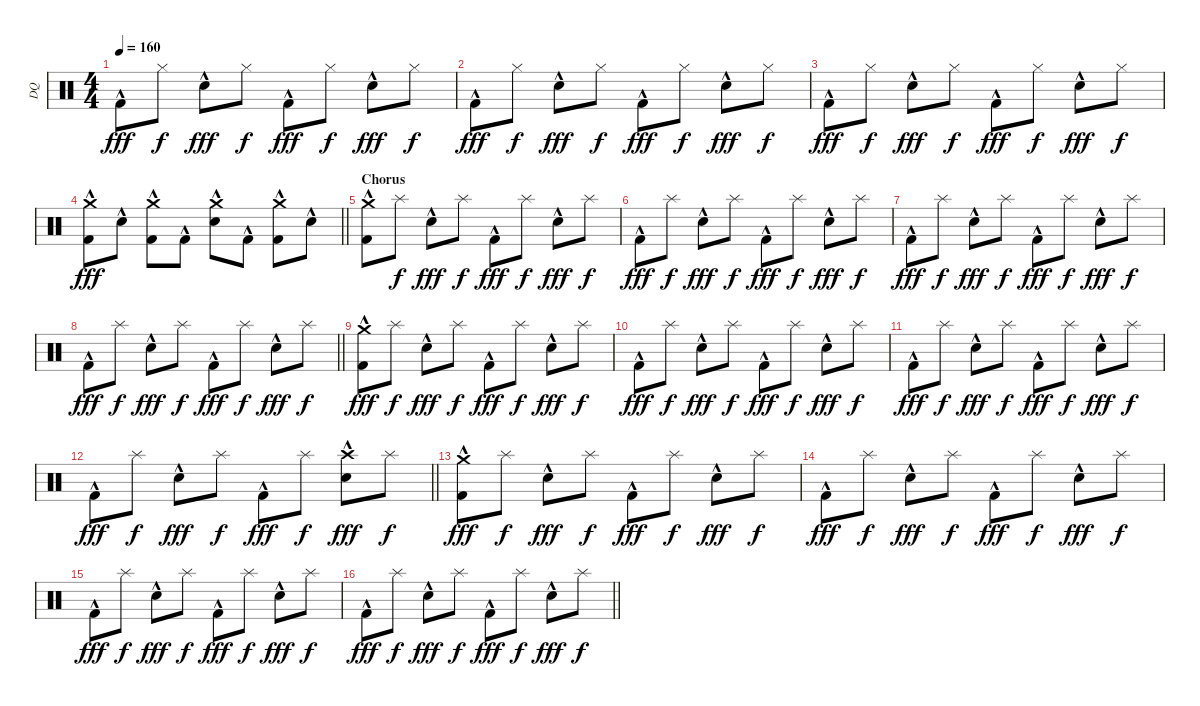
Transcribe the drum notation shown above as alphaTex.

\track ("DQ" "DQ") {instrument percussion}
\staff {score}
\articulation defaults
\ts (4 4)
\section ("" "")
\tempo 160
\clef neutral
\ks c "Kick (hit) 2"{hac}.8{dy fff} "Hi-Hat (closed)".8{dy f} "Snare (hit) 2"{hac}.8{dy fff} "Hi-Hat (closed)".8{dy f} "Kick (hit) 2"{hac}.8{dy fff} "Hi-Hat (closed)".8{dy f} "Snare (hit) 2"{hac}.8{dy fff} "Hi-Hat (closed)".8{dy f}
|
"Kick (hit) 2"{hac}.8{dy fff} "Hi-Hat (closed)".8{dy f} "Snare (hit) 2"{hac}.8{dy fff} "Hi-Hat (closed)".8{dy f} "Kick (hit) 2"{hac}.8{dy fff} "Hi-Hat (closed)".8{dy f} "Snare (hit) 2"{hac}.8{dy fff} "Hi-Hat (closed)".8{dy f} |
"Kick (hit) 2"{hac}.8{dy fff} "Hi-Hat (closed)".8{dy f} "Snare (hit) 2"{hac}.8{dy fff} "Hi-Hat (closed)".8{dy f} "Kick (hit) 2"{hac}.8{dy fff} "Hi-Hat (closed)".8{dy f} "Snare (hit) 2"{hac}.8{dy fff} "Hi-Hat (closed)".8{dy f} |
\barLineRight lightlight
("Kick (hit) 2"{hac} "Crash medium (hit)").8{dy fff} "Snare (hit) 2"{hac}.8 ("Kick (hit) 2"{hac} "Crash medium (hit)").8 "Kick (hit) 2"{hac}.8 ("Snare (hit) 2"{hac} "Crash medium (hit)").8 "Kick (hit) 2"{hac}.8 ("Kick (hit) 2"{hac} "Crash medium (hit)").8 "Snare (hit) 2"{hac}.8 |
\section ("" "Chorus")
("Kick (hit) 2"{hac} "Crash medium (hit)").8 "Splash (hit)".8{dy f} "Snare (hit) 2"{hac}.8{dy fff} "Splash (hit)".8{dy f} "Kick (hit) 2"{hac}.8{dy fff} "Splash (hit)".8{dy f} "Snare (hit) 2"{hac}.8{dy fff} "Splash (hit)".8{dy f} |
"Kick (hit) 2"{hac}.8{dy fff} "Splash (hit)".8{dy f} "Snare (hit) 2"{hac}.8{dy fff} "Splash (hit)".8{dy f} "Kick (hit) 2"{hac}.8{dy fff} "Splash (hit)".8{dy f} "Snare (hit) 2"{hac}.8{dy fff} "Splash (hit)".8{dy f} |
"Kick (hit) 2"{hac}.8{dy fff} "Splash (hit)".8{dy f} "Snare (hit) 2"{hac}.8{dy fff} "Splash (hit)".8{dy f} "Kick (hit) 2"{hac}.8{dy fff} "Splash (hit)".8{dy f} "Snare (hit) 2"{hac}.8{dy fff} "Splash (hit)".8{dy f} |
\barLineRight lightlight "Kick (hit) 2"{hac}.8{dy fff} "Splash (hit)".8{dy f} "Snare (hit) 2"{hac}.8{dy fff} "Splash (hit)".8{dy f} "Kick (hit) 2"{hac}.8{dy fff} "Splash (hit)".8{dy f} "Snare (hit) 2"{hac}.8{dy fff} "Splash (hit)".8{dy f}
|
\section ("" "")
("Kick (hit) 2"{hac} "Crash medium (hit)").8{dy fff} "Splash (hit)".8{dy f} "Snare (hit) 2"{hac}.8{dy fff} "Splash (hit)".8{dy f} "Kick (hit) 2"{hac}.8{dy fff} "Splash (hit)".8{dy f} "Snare (hit) 2"{hac}.8{dy fff} "Splash (hit)".8{dy f} |
"Kick (hit) 2"{hac}.8{dy fff} "Splash (hit)".8{dy f} "Snare (hit) 2"{hac}.8{dy fff} "Splash (hit)".8{dy f} "Kick (hit) 2"{hac}.8{dy fff} "Splash (hit)".8{dy f} "Snare (hit) 2"{hac}.8{dy fff} "Splash (hit)".8{dy f} |
"Kick (hit) 2"{hac}.8{dy fff} "Splash (hit)".8{dy f} "Snare (hit) 2"{hac}.8{dy fff} "Splash (hit)".8{dy f} "Kick (hit) 2"{hac}.8{dy fff} "Splash (hit)".8{dy f} "Snare (hit) 2"{hac}.8{dy fff} "Splash (hit)".8{dy f} |
\barLineRight lightlight "Kick (hit) 2"{hac}.8{dy fff} "Splash (hit)".8{dy f} "Snare (hit) 2"{hac}.8{dy fff} "Splash (hit)".8{dy f} "Kick (hit) 2"{hac}.8{dy fff} "Splash (hit)".8{dy f}
("Snare (hit) 2"{hac} "Crash high (hit)").8{dy fff} "Splash (hit)".8{dy f} |
\section ("" "")
("Kick (hit) 2"{hac} "Crash medium (hit)").8{dy fff} "Splash (hit)".8{dy f} "Snare (hit) 2"{hac}.8{dy fff} "Splash (hit)".8{dy f} "Kick (hit) 2"{hac}.8{dy fff} "Splash (hit)".8{dy f} "Snare (hit) 2"{hac}.8{dy fff} "Splash (hit)".8{dy f} |
"Kick (hit) 2"{hac}.8{dy fff} "Splash (hit)".8{dy f} "Snare (hit) 2"{hac}.8{dy fff} "Splash (hit)".8{dy f} "Kick (hit) 2"{hac}.8{dy fff} "Splash (hit)".8{dy f} "Snare (hit) 2"{hac}.8{dy fff} "Splash (hit)".8{dy f} |
"Kick (hit) 2"{hac}.8{dy fff} "Splash (hit)".8{dy f} "Snare (hit) 2"{hac}.8{dy fff} "Splash (hit)".8{dy f} "Kick (hit) 2"{hac}.8{dy fff} "Splash (hit)".8{dy f} "Snare (hit) 2"{hac}.8{dy fff} "Splash (hit)".8{dy f} |
\barLineRight lightlight "Kick (hit) 2"{hac}.8{dy fff} "Splash (hit)".8{dy f} "Snare (hit) 2"{hac}.8{dy fff} "Splash (hit)".8{dy f} "Kick (hit) 2"{hac}.8{dy fff} "Splash (hit)".8{dy f} "Snare (hit) 2"{hac}.8{dy fff} "Splash (hit)".8{dy f}
